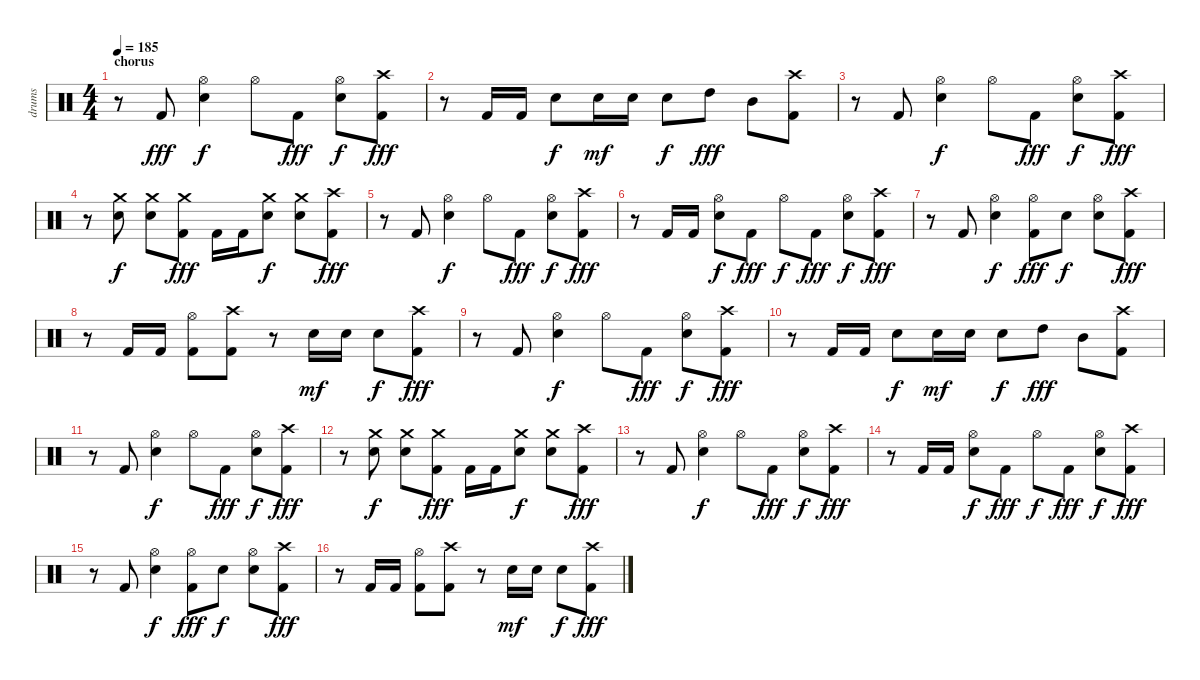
\track ("drums" "drums") {instrument percussion}
\staff {score}
\articulation defaults
\ts (4 4)
\section ("" "chorus")
\tempo 185
\clef neutral
\ks c
r.8{dy fff} "Kick (hit) 2".8 ("Hi-Hat (open)" "Snare (hit) 2").4{dy f} "Hi-Hat (open)".8 "Kick (hit) 2".8{dy fff} ("Hi-Hat (open)" "Snare (hit) 2").8{dy f} ("Crash high (hit)" "Kick (hit) 2").8{dy fff} |
r.8 "Kick (hit) 2".16 "Kick (hit) 2".16 "Snare (hit) 2".8{dy f} "Snare (hit) 2".16{dy mf} "Snare (hit) 2".16 "Snare (hit) 2".8{dy f} "High Tom (hit)".8{dy fff} "Mid Tom (hit)".8 ("Crash high (hit)" "Kick (hit) 2").8 |
r.8 "Kick (hit) 2".8 ("Hi-Hat (open)" "Snare (hit) 2").4{dy f} "Hi-Hat (open)".8 "Kick (hit) 2".8{dy fff} ("Hi-Hat (open)" "Snare (hit) 2").8{dy f} ("Crash high (hit)" "Kick (hit) 2").8{dy fff} |
r.8 ("Crash medium (hit)" "Snare (hit) 2").8{dy f} ("Crash medium (hit)" "Snare (hit) 2").8 ("Crash medium (hit)" "Kick (hit) 2").8{dy fff} "Kick (hit) 2".16 "Kick (hit) 2".16 ("Crash medium (hit)" "Snare (hit) 2").8{dy f} ("Crash medium (hit)" "Snare (hit) 2").8 ("Crash high (hit)" "Kick (hit) 2").8{dy fff} |
r.8 "Kick (hit) 2".8 ("Hi-Hat (open)" "Snare (hit) 2").4{dy f} "Hi-Hat (open)".8 "Kick (hit) 2".8{dy fff} ("Hi-Hat (open)" "Snare (hit) 2").8{dy f} ("Crash high (hit)" "Kick (hit) 2").8{dy fff} |
r.8 "Kick (hit) 2".16 "Kick (hit) 2".16 ("Hi-Hat (open)" "Snare (hit) 2").8{dy f} "Kick (hit) 2".8{dy fff} "Hi-Hat (open)".8{dy f} "Kick (hit) 2".8{dy fff} ("Hi-Hat (open)" "Snare (hit) 2").8{dy f} ("Crash high (hit)" "Kick (hit) 2").8{dy fff} |
r.8 "Kick (hit) 2".8 ("Hi-Hat (open)" "Snare (hit) 2").4{dy f} ("Hi-Hat (open)" "Kick (hit) 2").8{dy fff} "Snare (hit) 2".8{dy f} ("Hi-Hat (open)" "Snare (hit) 2").8 ("Crash high (hit)" "Kick (hit) 2").8{dy fff} |
r.8 "Kick (hit) 2".16 "Kick (hit) 2".16 ("Hi-Hat (open)" "Kick (hit) 2").8 ("Crash high (hit)" "Kick (hit) 2").8 r.8 "Snare (hit) 2".16{dy mf} "Snare (hit) 2".16 "Snare (hit) 2".8{dy f} ("Crash high (hit)" "Kick (hit) 2").8{dy fff} |
r.8 "Kick (hit) 2".8 ("Hi-Hat (open)" "Snare (hit) 2").4{dy f} "Hi-Hat (open)".8 "Kick (hit) 2".8{dy fff} ("Hi-Hat (open)" "Snare (hit) 2").8{dy f} ("Crash high (hit)" "Kick (hit) 2").8{dy fff} |
r.8 "Kick (hit) 2".16 "Kick (hit) 2".16 "Snare (hit) 2".8{dy f} "Snare (hit) 2".16{dy mf} "Snare (hit) 2".16 "Snare (hit) 2".8{dy f} "High Tom (hit)".8{dy fff} "Mid Tom (hit)".8 ("Crash high (hit)" "Kick (hit) 2").8 |
r.8 "Kick (hit) 2".8 ("Hi-Hat (open)" "Snare (hit) 2").4{dy f} "Hi-Hat (open)".8 "Kick (hit) 2".8{dy fff} ("Hi-Hat (open)" "Snare (hit) 2").8{dy f} ("Crash high (hit)" "Kick (hit) 2").8{dy fff} |
r.8 ("Crash medium (hit)" "Snare (hit) 2").8{dy f} ("Crash medium (hit)" "Snare (hit) 2").8 ("Crash medium (hit)" "Kick (hit) 2").8{dy fff} "Kick (hit) 2".16 "Kick (hit) 2".16 ("Crash medium (hit)" "Snare (hit) 2").8{dy f} ("Crash medium (hit)" "Snare (hit) 2").8 ("Crash high (hit)" "Kick (hit) 2").8{dy fff} |
r.8 "Kick (hit) 2".8 ("Hi-Hat (open)" "Snare (hit) 2").4{dy f} "Hi-Hat (open)".8 "Kick (hit) 2".8{dy fff} ("Hi-Hat (open)" "Snare (hit) 2").8{dy f} ("Crash high (hit)" "Kick (hit) 2").8{dy fff} |
r.8 "Kick (hit) 2".16 "Kick (hit) 2".16 ("Hi-Hat (open)" "Snare (hit) 2").8{dy f} "Kick (hit) 2".8{dy fff} "Hi-Hat (open)".8{dy f} "Kick (hit) 2".8{dy fff} ("Hi-Hat (open)" "Snare (hit) 2").8{dy f} ("Crash high (hit)" "Kick (hit) 2").8{dy fff} |
r.8 "Kick (hit) 2".8 ("Hi-Hat (open)" "Snare (hit) 2").4{dy f} ("Hi-Hat (open)" "Kick (hit) 2").8{dy fff} "Snare (hit) 2".8{dy f} ("Hi-Hat (open)" "Snare (hit) 2").8 ("Crash high (hit)" "Kick (hit) 2").8{dy fff} |
r.8 "Kick (hit) 2".16 "Kick (hit) 2".16 ("Hi-Hat (open)" "Kick (hit) 2").8 ("Crash high (hit)" "Kick (hit) 2").8 r.8 "Snare (hit) 2".16{dy mf} "Snare (hit) 2".16 "Snare (hit) 2".8{dy f} ("Crash high (hit)" "Kick (hit) 2").8{dy fff}
